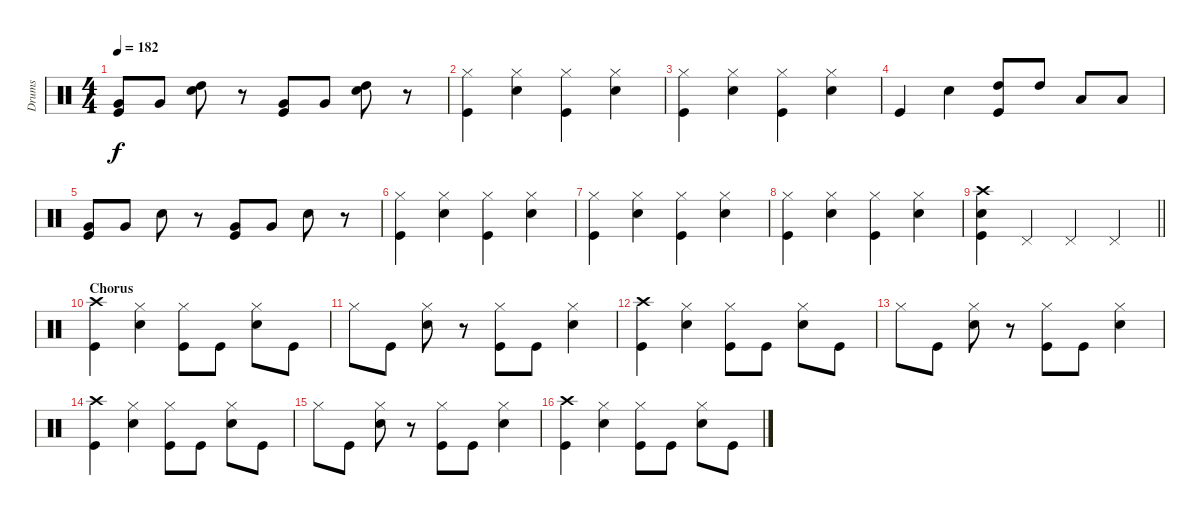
\track ("Drums" "Drums") {instrument percussion}
\staff {score}
\articulation defaults
\ts (4 4)
\tempo 182
\clef neutral
\ks c
("Very Low Tom (hit)" "Kick (hit)").8{dy f} "Very Low Tom (hit)".8 ("Snare (hit) 2" "High Tom (hit)").8 r.8 ("Very Low Tom (hit)" "Kick (hit)").8 "Very Low Tom (hit)".8 ("Snare (hit) 2" "High Tom (hit)").8 r.8 |
("Kick (hit)" "Hi-Hat (closed)").4 ("Snare (hit) 2" "Hi-Hat (closed)").4 ("Kick (hit)" "Hi-Hat (closed)").4 ("Snare (hit) 2" "Hi-Hat (closed)").4 |
("Kick (hit)" "Hi-Hat (closed)").4 ("Snare (hit) 2" "Hi-Hat (closed)").4 ("Kick (hit)" "Hi-Hat (closed)").4 ("Snare (hit) 2" "Hi-Hat (closed)").4 |
"Kick (hit)".4 "Snare (hit) 2".4 ("High Tom (hit)" "Kick (hit)").8 "High Tom (hit)".8 "Low Tom (hit)".8 "Low Tom (hit)".8 |
("Very Low Tom (hit)" "Kick (hit)").8 "Very Low Tom (hit)".8 "Snare (hit) 2".8 r.8 ("Very Low Tom (hit)" "Kick (hit)").8 "Very Low Tom (hit)".8 "Snare (hit) 2".8 r.8 |
("Kick (hit)" "Hi-Hat (closed)").4 ("Snare (hit) 2" "Hi-Hat (closed)").4 ("Kick (hit)" "Hi-Hat (closed)").4 ("Snare (hit) 2" "Hi-Hat (closed)").4 |
("Kick (hit)" "Hi-Hat (closed)").4 ("Snare (hit) 2" "Hi-Hat (closed)").4 ("Kick (hit)" "Hi-Hat (closed)").4 ("Snare (hit) 2" "Hi-Hat (closed)").4 |
("Kick (hit)" "Hi-Hat (closed)").4 ("Snare (hit) 2" "Hi-Hat (closed)").4 ("Kick (hit)" "Hi-Hat (closed)").4 ("Snare (hit) 2" "Hi-Hat (closed)").4 |
\barLineRight lightlight
("Crash high (hit)" "Snare (hit) 2" "Kick (hit)").4 "Pedal Hi-Hat (hit)".4 "Pedal Hi-Hat (hit)".4 "Pedal Hi-Hat (hit)".4 |
\section ("" "Chorus")
("Crash high (hit)" "Kick (hit)").4 ("Hi-Hat (closed)" "Snare (hit) 2").4 ("Hi-Hat (closed)" "Kick (hit)").8 "Kick (hit)".8 ("Hi-Hat (closed)" "Snare (hit) 2").8 "Kick (hit)".8 |
"Hi-Hat (closed)".8 "Kick (hit)".8 ("Hi-Hat (closed)" "Snare (hit) 2").8 r.8 ("Hi-Hat (closed)" "Kick (hit)").8 "Kick (hit)".8 ("Hi-Hat (closed)" "Snare (hit) 2").4 |
("Crash high (hit)" "Kick (hit)").4 ("Hi-Hat (closed)" "Snare (hit) 2").4 ("Hi-Hat (closed)" "Kick (hit)").8 "Kick (hit)".8 ("Hi-Hat (closed)" "Snare (hit) 2").8 "Kick (hit)".8 |
"Hi-Hat (closed)".8 "Kick (hit)".8 ("Hi-Hat (closed)" "Snare (hit) 2").8 r.8 ("Hi-Hat (closed)" "Kick (hit)").8 "Kick (hit)".8 ("Hi-Hat (closed)" "Snare (hit) 2").4 |
("Crash high (hit)" "Kick (hit)").4 ("Hi-Hat (closed)" "Snare (hit) 2").4 ("Hi-Hat (closed)" "Kick (hit)").8 "Kick (hit)".8 ("Hi-Hat (closed)" "Snare (hit) 2").8 "Kick (hit)".8 |
"Hi-Hat (closed)".8 "Kick (hit)".8 ("Hi-Hat (closed)" "Snare (hit) 2").8 r.8 ("Hi-Hat (closed)" "Kick (hit)").8 "Kick (hit)".8 ("Hi-Hat (closed)" "Snare (hit) 2").4 |
("Crash high (hit)" "Kick (hit)").4 ("Hi-Hat (closed)" "Snare (hit) 2").4 ("Hi-Hat (closed)" "Kick (hit)").8 "Kick (hit)".8 ("Hi-Hat (closed)" "Snare (hit) 2").8 "Kick (hit)".8
